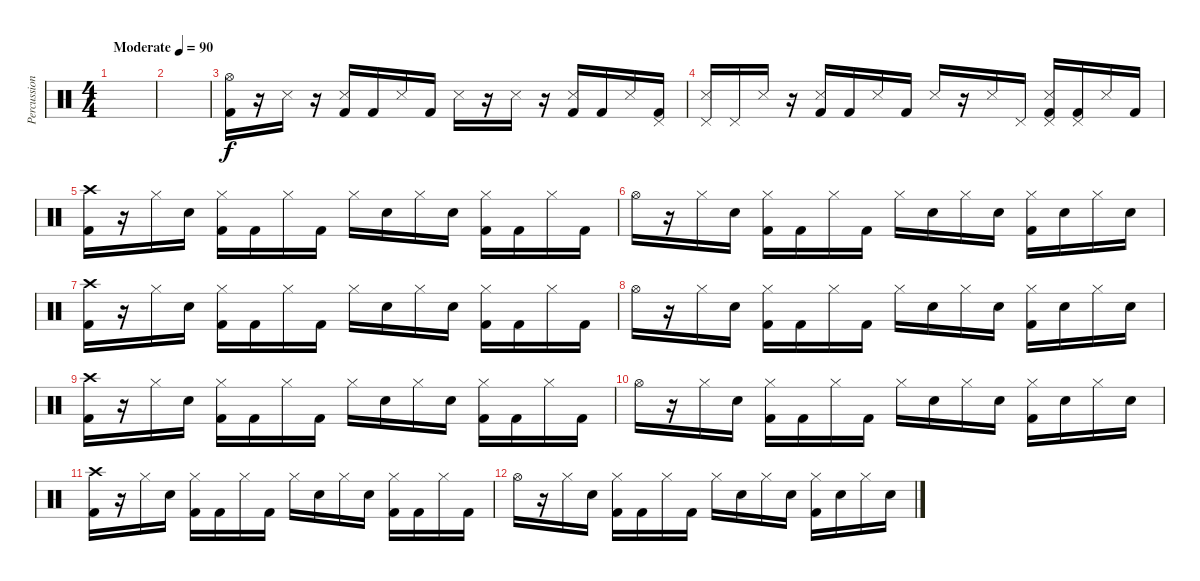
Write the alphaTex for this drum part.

\track ("Percussion" "Percussion") {instrument percussion bank 3}
\staff {score}
\articulation defaults
\ts (4 4)
\tempo (90 "Moderate")
\clef neutral
\ks c
|
|
("Hi-Hat (open)" "Kick (hit) 2").16 r.16 "Metronome (hit)".16 r.16 ("Metronome (hit)" "Kick (hit) 2").16 "Kick (hit) 2".16 "Metronome (hit)".16 "Kick (hit) 2".16 "Metronome (hit)".16 r.16 "Metronome (hit)".16 r.16 ("Metronome (hit)" "Kick (hit) 2").16 "Kick (hit) 2".16 "Metronome (hit)".16 ("Pedal Hi-Hat (hit)" "Kick (hit) 2").16 |
("Pedal Hi-Hat (hit)" "Metronome (hit)").16 "Pedal Hi-Hat (hit)".16 "Metronome (hit)".16 r.16 ("Metronome (hit)" "Kick (hit) 2").16 "Kick (hit) 2".16 "Metronome (hit)".16 "Kick (hit) 2".16 "Metronome (hit)".16 r.16 "Metronome (hit)".16 "Pedal Hi-Hat (hit)".16 ("Pedal Hi-Hat (hit)" "Metronome (hit)" "Kick (hit) 2").16 ("Pedal Hi-Hat (hit)" "Kick (hit) 2").16 "Metronome (hit)".16 "Kick (hit) 2".16 |
("Crash high (hit)" "Kick (hit) 2").16 r.16 "Hi-Hat (closed)".16 "Electric Snare (hit)".16 ("Hi-Hat (closed)" "Kick (hit) 2").16 "Kick (hit) 2".16 "Hi-Hat (closed)".16 "Kick (hit) 2".16 "Hi-Hat (closed)".16 "Electric Snare (hit)".16 "Hi-Hat (closed)".16 "Electric Snare (hit)".16 ("Hi-Hat (closed)" "Kick (hit) 2").16 "Kick (hit) 2".16 "Hi-Hat (closed)".16 "Kick (hit) 2".16 |
"Hi-Hat (open)".16 r.16 "Hi-Hat (closed)".16 "Electric Snare (hit)".16 ("Hi-Hat (closed)" "Kick (hit) 2").16 "Kick (hit) 2".16 "Hi-Hat (closed)".16 "Kick (hit) 2".16 "Hi-Hat (closed)".16 "Electric Snare (hit)".16 "Hi-Hat (closed)".16 "Electric Snare (hit)".16 ("Hi-Hat (closed)" "Kick (hit) 2").16 "Electric Snare (hit)".16 "Hi-Hat (closed)".16 "Electric Snare (hit)".16 |
("Crash high (hit)" "Kick (hit) 2").16 r.16 "Hi-Hat (closed)".16 "Electric Snare (hit)".16 ("Hi-Hat (closed)" "Kick (hit) 2").16 "Kick (hit) 2".16 "Hi-Hat (closed)".16 "Kick (hit) 2".16 "Hi-Hat (closed)".16 "Electric Snare (hit)".16 "Hi-Hat (closed)".16 "Electric Snare (hit)".16 ("Hi-Hat (closed)" "Kick (hit) 2").16 "Kick (hit) 2".16 "Hi-Hat (closed)".16 "Kick (hit) 2".16 |
"Hi-Hat (open)".16 r.16 "Hi-Hat (closed)".16 "Electric Snare (hit)".16 ("Hi-Hat (closed)" "Kick (hit) 2").16 "Kick (hit) 2".16 "Hi-Hat (closed)".16 "Kick (hit) 2".16 "Hi-Hat (closed)".16 "Electric Snare (hit)".16 "Hi-Hat (closed)".16 "Electric Snare (hit)".16 ("Hi-Hat (closed)" "Kick (hit) 2").16 "Electric Snare (hit)".16 "Hi-Hat (closed)".16 "Electric Snare (hit)".16 |
("Crash high (hit)" "Kick (hit) 2").16 r.16 "Hi-Hat (closed)".16 "Electric Snare (hit)".16 ("Hi-Hat (closed)" "Kick (hit) 2").16 "Kick (hit) 2".16 "Hi-Hat (closed)".16 "Kick (hit) 2".16 "Hi-Hat (closed)".16 "Electric Snare (hit)".16 "Hi-Hat (closed)".16 "Electric Snare (hit)".16 ("Hi-Hat (closed)" "Kick (hit) 2").16 "Kick (hit) 2".16 "Hi-Hat (closed)".16 "Kick (hit) 2".16 |
"Hi-Hat (open)".16 r.16 "Hi-Hat (closed)".16 "Electric Snare (hit)".16 ("Hi-Hat (closed)" "Kick (hit) 2").16 "Kick (hit) 2".16 "Hi-Hat (closed)".16 "Kick (hit) 2".16 "Hi-Hat (closed)".16 "Electric Snare (hit)".16 "Hi-Hat (closed)".16 "Electric Snare (hit)".16 ("Hi-Hat (closed)" "Kick (hit) 2").16 "Electric Snare (hit)".16 "Hi-Hat (closed)".16 "Electric Snare (hit)".16 |
("Crash high (hit)" "Kick (hit) 2").16 r.16 "Hi-Hat (closed)".16 "Electric Snare (hit)".16 ("Hi-Hat (closed)" "Kick (hit) 2").16 "Kick (hit) 2".16 "Hi-Hat (closed)".16 "Kick (hit) 2".16 "Hi-Hat (closed)".16 "Electric Snare (hit)".16 "Hi-Hat (closed)".16 "Electric Snare (hit)".16 ("Hi-Hat (closed)" "Kick (hit) 2").16 "Kick (hit) 2".16 "Hi-Hat (closed)".16 "Kick (hit) 2".16 |
"Hi-Hat (open)".16 r.16 "Hi-Hat (closed)".16 "Electric Snare (hit)".16 ("Hi-Hat (closed)" "Kick (hit) 2").16 "Kick (hit) 2".16 "Hi-Hat (closed)".16 "Kick (hit) 2".16 "Hi-Hat (closed)".16 "Electric Snare (hit)".16 "Hi-Hat (closed)".16 "Electric Snare (hit)".16 ("Hi-Hat (closed)" "Kick (hit) 2").16 "Electric Snare (hit)".16 "Hi-Hat (closed)".16 "Electric Snare (hit)".16
